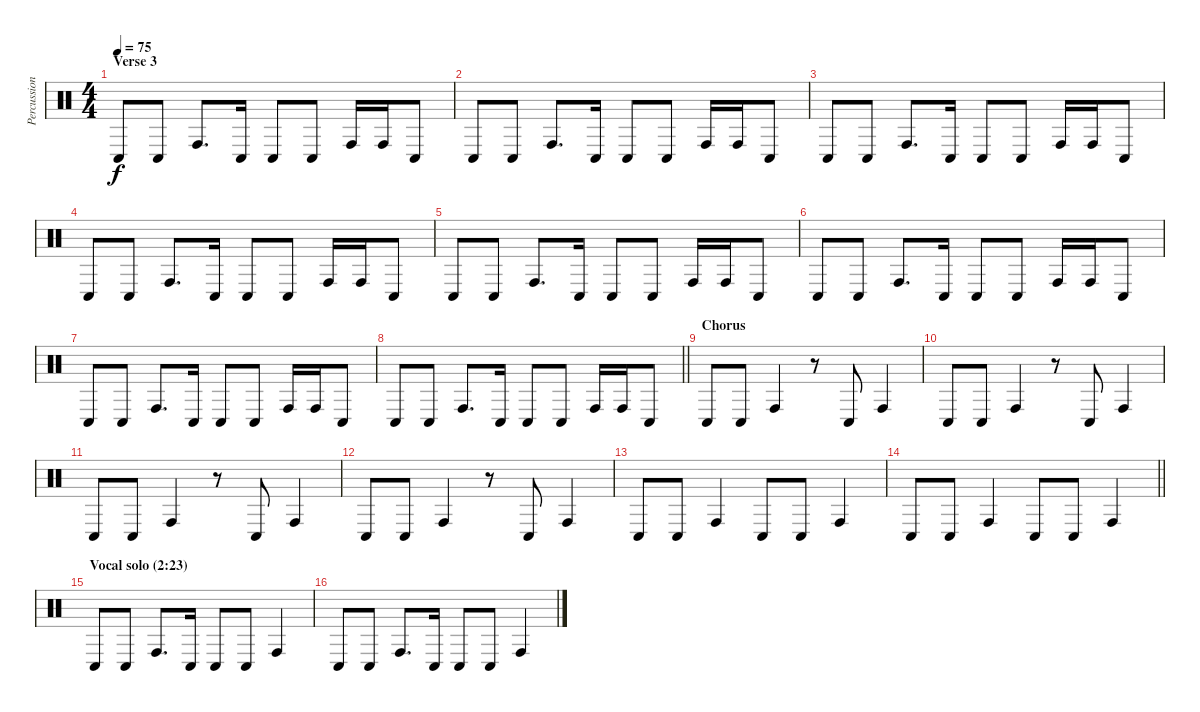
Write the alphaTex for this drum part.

\track ("Percussion (bongo's) +" "Percussion") {instrument percussion}
\staff {score}
\articulation defaults
\ts (4 4)
\section ("" "Verse 3")
\tempo 75
\clef neutral
\ks c "Conga low (hit)".8{dy f} "Conga low (hit)".8 "Conga high (hit)".8{d} "Conga low (hit)".16 "Conga low (hit)".8 "Conga low (hit)".8 "Conga high (hit)".16 "Conga high (hit)".16 "Conga low (hit)".8
|
"Conga low (hit)".8 "Conga low (hit)".8 "Conga high (hit)".8{d} "Conga low (hit)".16 "Conga low (hit)".8 "Conga low (hit)".8 "Conga high (hit)".16 "Conga high (hit)".16 "Conga low (hit)".8 |
"Conga low (hit)".8 "Conga low (hit)".8 "Conga high (hit)".8{d} "Conga low (hit)".16 "Conga low (hit)".8 "Conga low (hit)".8 "Conga high (hit)".16 "Conga high (hit)".16 "Conga low (hit)".8 |
"Conga low (hit)".8 "Conga low (hit)".8 "Conga high (hit)".8{d} "Conga low (hit)".16 "Conga low (hit)".8 "Conga low (hit)".8 "Conga high (hit)".16 "Conga high (hit)".16 "Conga low (hit)".8 |
"Conga low (hit)".8 "Conga low (hit)".8 "Conga high (hit)".8{d} "Conga low (hit)".16 "Conga low (hit)".8 "Conga low (hit)".8 "Conga high (hit)".16 "Conga high (hit)".16 "Conga low (hit)".8 |
"Conga low (hit)".8 "Conga low (hit)".8 "Conga high (hit)".8{d} "Conga low (hit)".16 "Conga low (hit)".8 "Conga low (hit)".8 "Conga high (hit)".16 "Conga high (hit)".16 "Conga low (hit)".8 |
"Conga low (hit)".8 "Conga low (hit)".8 "Conga high (hit)".8{d} "Conga low (hit)".16 "Conga low (hit)".8 "Conga low (hit)".8 "Conga high (hit)".16 "Conga high (hit)".16 "Conga low (hit)".8 |
\barLineRight lightlight "Conga low (hit)".8 "Conga low (hit)".8 "Conga high (hit)".8{d} "Conga low (hit)".16 "Conga low (hit)".8 "Conga low (hit)".8 "Conga high (hit)".16 "Conga high (hit)".16 "Conga low (hit)".8
|
\section ("" "Chorus")
"Conga low (hit)".8 "Conga low (hit)".8 "Conga high (hit)".4 r.8 "Conga low (hit)".8 "Conga high (hit)".4 |
"Conga low (hit)".8 "Conga low (hit)".8 "Conga high (hit)".4 r.8 "Conga low (hit)".8 "Conga high (hit)".4 |
"Conga low (hit)".8 "Conga low (hit)".8 "Conga high (hit)".4 r.8 "Conga low (hit)".8 "Conga high (hit)".4 |
"Conga low (hit)".8 "Conga low (hit)".8 "Conga high (hit)".4 r.8 "Conga low (hit)".8 "Conga high (hit)".4 |
"Conga low (hit)".8 "Conga low (hit)".8 "Conga high (hit)".4 "Conga low (hit)".8 "Conga low (hit)".8 "Conga high (hit)".4 |
\barLineRight lightlight "Conga low (hit)".8 "Conga low (hit)".8 "Conga high (hit)".4 "Conga low (hit)".8 "Conga low (hit)".8 "Conga high (hit)".4
|
\section ("" "Vocal solo (2:23)")
"Conga low (hit)".8 "Conga low (hit)".8 "Conga high (hit)".8{d} "Conga low (hit)".16 "Conga low (hit)".8 "Conga low (hit)".8 "Conga high (hit)".4 |
"Conga low (hit)".8 "Conga low (hit)".8 "Conga high (hit)".8{d} "Conga low (hit)".16 "Conga low (hit)".8 "Conga low (hit)".8 "Conga high (hit)".4
